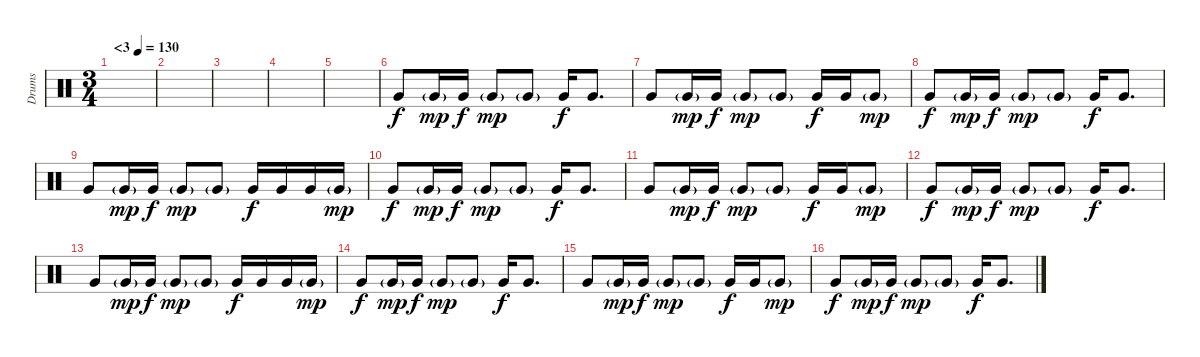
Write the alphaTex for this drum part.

\track ("Drums" "Drums") {instrument percussion}
\staff {score}
\articulation defaults
\ts (3 4)
\tempo (130 "<3")
\clef neutral
\ks c
|
|
|
|
|
"Very Low Tom (hit)".8{volume 8} "Very Low Tom (hit)"{g}.16{dy mp} "Very Low Tom (hit)".16{dy f} "Very Low Tom (hit)"{g}.8{dy mp} "Very Low Tom (hit)"{g}.8 "Very Low Tom (hit)".16{dy f} "Very Low Tom (hit)".8{d} |
"Very Low Tom (hit)".8 "Very Low Tom (hit)"{g}.16{dy mp} "Very Low Tom (hit)".16{dy f} "Very Low Tom (hit)"{g}.8{dy mp} "Very Low Tom (hit)"{g}.8 "Very Low Tom (hit)".16{dy f} "Very Low Tom (hit)".16 "Very Low Tom (hit)"{g}.8{dy mp} |
"Very Low Tom (hit)".8{dy f} "Very Low Tom (hit)"{g}.16{dy mp} "Very Low Tom (hit)".16{dy f} "Very Low Tom (hit)"{g}.8{dy mp} "Very Low Tom (hit)"{g}.8 "Very Low Tom (hit)".16{dy f} "Very Low Tom (hit)".8{d} |
"Very Low Tom (hit)".8 "Very Low Tom (hit)"{g}.16{dy mp} "Very Low Tom (hit)".16{dy f} "Very Low Tom (hit)"{g}.8{dy mp} "Very Low Tom (hit)"{g}.8 "Very Low Tom (hit)".16{dy f} "Very Low Tom (hit)".16 "Very Low Tom (hit)".16 "Very Low Tom (hit)"{g}.16{dy mp} |
"Very Low Tom (hit)".8{dy f} "Very Low Tom (hit)"{g}.16{dy mp} "Very Low Tom (hit)".16{dy f} "Very Low Tom (hit)"{g}.8{dy mp} "Very Low Tom (hit)"{g}.8 "Very Low Tom (hit)".16{dy f} "Very Low Tom (hit)".8{d} |
"Very Low Tom (hit)".8 "Very Low Tom (hit)"{g}.16{dy mp} "Very Low Tom (hit)".16{dy f} "Very Low Tom (hit)"{g}.8{dy mp} "Very Low Tom (hit)"{g}.8 "Very Low Tom (hit)".16{dy f} "Very Low Tom (hit)".16 "Very Low Tom (hit)"{g}.8{dy mp} |
"Very Low Tom (hit)".8{dy f volume 10} "Very Low Tom (hit)"{g}.16{dy mp} "Very Low Tom (hit)".16{dy f} "Very Low Tom (hit)"{g}.8{dy mp} "Very Low Tom (hit)"{g}.8 "Very Low Tom (hit)".16{dy f} "Very Low Tom (hit)".8{d} |
"Very Low Tom (hit)".8 "Very Low Tom (hit)"{g}.16{dy mp} "Very Low Tom (hit)".16{dy f} "Very Low Tom (hit)"{g}.8{dy mp} "Very Low Tom (hit)"{g}.8 "Very Low Tom (hit)".16{dy f} "Very Low Tom (hit)".16 "Very Low Tom (hit)".16 "Very Low Tom (hit)"{g}.16{dy mp} |
"Very Low Tom (hit)".8{dy f} "Very Low Tom (hit)"{g}.16{dy mp} "Very Low Tom (hit)".16{dy f} "Very Low Tom (hit)"{g}.8{dy mp} "Very Low Tom (hit)"{g}.8 "Very Low Tom (hit)".16{dy f} "Very Low Tom (hit)".8{d} |
"Very Low Tom (hit)".8 "Very Low Tom (hit)"{g}.16{dy mp} "Very Low Tom (hit)".16{dy f} "Very Low Tom (hit)"{g}.8{dy mp} "Very Low Tom (hit)"{g}.8 "Very Low Tom (hit)".16{dy f} "Very Low Tom (hit)".16 "Very Low Tom (hit)"{g}.8{dy mp} |
"Very Low Tom (hit)".8{dy f} "Very Low Tom (hit)"{g}.16{dy mp} "Very Low Tom (hit)".16{dy f} "Very Low Tom (hit)"{g}.8{dy mp} "Very Low Tom (hit)"{g}.8 "Very Low Tom (hit)".16{dy f} "Very Low Tom (hit)".8{d}
